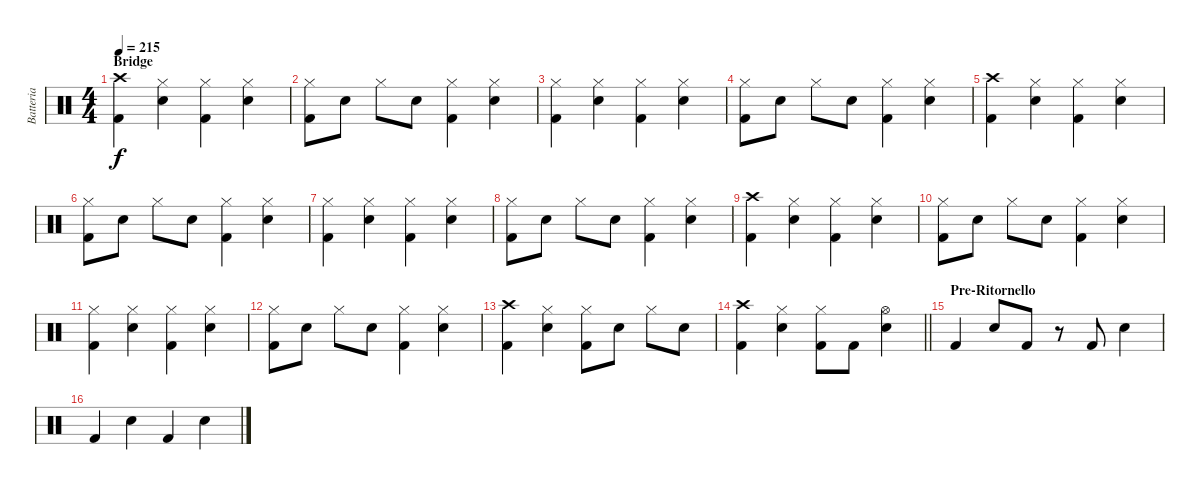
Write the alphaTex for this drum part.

\track ("Batteria" "Batteria") {instrument percussion}
\staff {score}
\articulation defaults
\ts (4 4)
\section ("" "Bridge")
\tempo 215
\clef neutral
\ks c
("Crash high (hit)" "Kick (hit) 2").4{dy f} ("Hi-Hat (closed)" "Electric Snare (hit)").4 ("Hi-Hat (closed)" "Kick (hit) 2").4 ("Hi-Hat (closed)" "Electric Snare (hit)").4 |
("Hi-Hat (closed)" "Kick (hit) 2").8 "Electric Snare (hit)".8 "Hi-Hat (closed)".8 "Electric Snare (hit)".8 ("Hi-Hat (closed)" "Kick (hit) 2").4 ("Hi-Hat (closed)" "Electric Snare (hit)").4 |
("Hi-Hat (closed)" "Kick (hit) 2").4 ("Hi-Hat (closed)" "Electric Snare (hit)").4 ("Hi-Hat (closed)" "Kick (hit) 2").4 ("Hi-Hat (closed)" "Electric Snare (hit)").4 |
("Hi-Hat (closed)" "Kick (hit) 2").8 "Electric Snare (hit)".8 "Hi-Hat (closed)".8 "Electric Snare (hit)".8 ("Hi-Hat (closed)" "Kick (hit) 2").4 ("Hi-Hat (closed)" "Electric Snare (hit)").4 |
("Crash high (hit)" "Kick (hit) 2").4 ("Hi-Hat (closed)" "Electric Snare (hit)").4 ("Hi-Hat (closed)" "Kick (hit) 2").4 ("Hi-Hat (closed)" "Electric Snare (hit)").4 |
("Hi-Hat (closed)" "Kick (hit) 2").8 "Electric Snare (hit)".8 "Hi-Hat (closed)".8 "Electric Snare (hit)".8 ("Hi-Hat (closed)" "Kick (hit) 2").4 ("Hi-Hat (closed)" "Electric Snare (hit)").4 |
("Hi-Hat (closed)" "Kick (hit) 2").4 ("Hi-Hat (closed)" "Electric Snare (hit)").4 ("Hi-Hat (closed)" "Kick (hit) 2").4 ("Hi-Hat (closed)" "Electric Snare (hit)").4 |
("Hi-Hat (closed)" "Kick (hit) 2").8 "Electric Snare (hit)".8 "Hi-Hat (closed)".8 "Electric Snare (hit)".8 ("Hi-Hat (closed)" "Kick (hit) 2").4 ("Hi-Hat (closed)" "Electric Snare (hit)").4 |
("Crash high (hit)" "Kick (hit) 2").4 ("Hi-Hat (closed)" "Electric Snare (hit)").4 ("Hi-Hat (closed)" "Kick (hit) 2").4 ("Hi-Hat (closed)" "Electric Snare (hit)").4 |
("Hi-Hat (closed)" "Kick (hit) 2").8 "Electric Snare (hit)".8 "Hi-Hat (closed)".8 "Electric Snare (hit)".8 ("Hi-Hat (closed)" "Kick (hit) 2").4 ("Hi-Hat (closed)" "Electric Snare (hit)").4 |
("Hi-Hat (closed)" "Kick (hit) 2").4 ("Hi-Hat (closed)" "Electric Snare (hit)").4 ("Hi-Hat (closed)" "Kick (hit) 2").4 ("Hi-Hat (closed)" "Electric Snare (hit)").4 |
("Hi-Hat (closed)" "Kick (hit) 2").8 "Electric Snare (hit)".8 "Hi-Hat (closed)".8 "Electric Snare (hit)".8 ("Hi-Hat (closed)" "Kick (hit) 2").4 ("Hi-Hat (closed)" "Electric Snare (hit)").4 |
("Crash high (hit)" "Kick (hit) 2").4 ("Hi-Hat (closed)" "Electric Snare (hit)").4 ("Hi-Hat (closed)" "Kick (hit) 2").8 "Electric Snare (hit)".8 "Hi-Hat (closed)".8 "Electric Snare (hit)".8 |
\barLineRight lightlight
("Crash high (hit)" "Kick (hit) 2").4 ("Hi-Hat (closed)" "Electric Snare (hit)").4 ("Hi-Hat (closed)" "Kick (hit) 2").8 "Kick (hit) 2".8 ("Hi-Hat (open)" "Electric Snare (hit)").4 |
\section ("" "Pre-Ritornello")
"Kick (hit) 2".4 "Electric Snare (hit)".8 "Kick (hit) 2".8 r.8 "Kick (hit) 2".8 "Electric Snare (hit)".4 |
"Kick (hit) 2".4 "Electric Snare (hit)".4 "Kick (hit) 2".4 "Electric Snare (hit)".4
